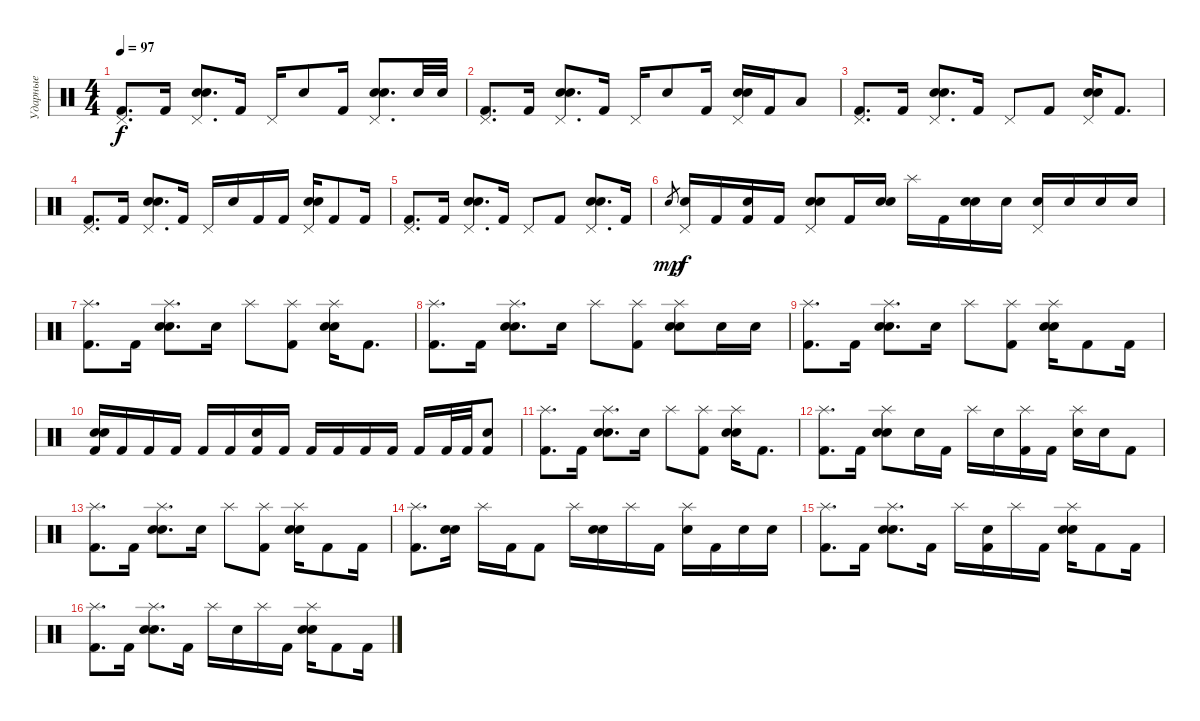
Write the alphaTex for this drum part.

\track ("Ударные" "Ударные") {instrument percussion}
\staff {score}
\articulation defaults
\ts (4 4)
\tempo 97
\clef neutral
\ks c
("Pedal Hi-Hat (hit)" "Kick (hit) 2").8{d dy f} "Kick (hit) 2".16 ("Pedal Hi-Hat (hit)" "Electric Snare (hit)" "Snare (hit) 2").8{d} "Kick (hit) 2".16 "Pedal Hi-Hat (hit)".16 "Electric Snare (hit)".8 "Kick (hit) 2".16 ("Pedal Hi-Hat (hit)" "Electric Snare (hit)" "Snare (hit) 2").8{d} "Electric Snare (hit)".32 "Electric Snare (hit)".32 |
("Pedal Hi-Hat (hit)" "Kick (hit) 2").8{d} "Kick (hit) 2".16 ("Pedal Hi-Hat (hit)" "Electric Snare (hit)" "Snare (hit) 2").8{d} "Kick (hit) 2".16 "Pedal Hi-Hat (hit)".16 "Electric Snare (hit)".8 "Kick (hit) 2".16 ("Pedal Hi-Hat (hit)" "Electric Snare (hit)" "Snare (hit) 2").16 "Kick (hit) 2".16 "Low Floor Tom (hit)".8 |
("Pedal Hi-Hat (hit)" "Kick (hit) 2").8{d} "Kick (hit) 2".16 ("Pedal Hi-Hat (hit)" "Electric Snare (hit)" "Snare (hit) 2").8{d} "Kick (hit) 2".16 "Pedal Hi-Hat (hit)".8 "Kick (hit) 2".8 ("Pedal Hi-Hat (hit)" "Electric Snare (hit)" "Snare (hit) 2").16 "Kick (hit) 2".8{d} |
("Pedal Hi-Hat (hit)" "Kick (hit) 2").8{d} "Kick (hit) 2".16 ("Pedal Hi-Hat (hit)" "Electric Snare (hit)" "Snare (hit) 2").8{d} "Kick (hit) 2".16 "Pedal Hi-Hat (hit)".16 "Electric Snare (hit)".16 "Kick (hit) 2".16 "Kick (hit) 2".16 ("Pedal Hi-Hat (hit)" "Electric Snare (hit)" "Snare (hit) 2").16 "Kick (hit) 2".8 "Kick (hit) 2".16 |
("Pedal Hi-Hat (hit)" "Kick (hit) 2").8{d} "Kick (hit) 2".16 ("Pedal Hi-Hat (hit)" "Electric Snare (hit)" "Snare (hit) 2").8{d} "Kick (hit) 2".16 "Pedal Hi-Hat (hit)".8 "Kick (hit) 2".8 ("Pedal Hi-Hat (hit)" "Electric Snare (hit)" "Snare (hit) 2").8{d} "Kick (hit) 2".16 |
"Electric Snare (hit)".8{gr dy mp} ("Pedal Hi-Hat (hit)" "Electric Snare (hit)").16{dy f} "Kick (hit) 2".16 ("Electric Snare (hit)" "Kick (hit) 2").16 "Kick (hit) 2".16 ("Pedal Hi-Hat (hit)" "Electric Snare (hit)" "Snare (hit) 2").8 "Kick (hit) 2".16 ("Electric Snare (hit)" "Snare (hit) 2").16 "Splash (hit)".16 "Kick (hit) 2".16 ("Electric Snare (hit)" "Snare (hit) 2").16 "Electric Snare (hit)".16 ("Pedal Hi-Hat (hit)" "Electric Snare (hit)").16 "Electric Snare (hit)".16 "Electric Snare (hit)".16 "Electric Snare (hit)".16 |
("Splash (hit)" "Kick (hit) 2").8{d} "Kick (hit) 2".16 ("Splash (hit)" "Electric Snare (hit)" "Snare (hit) 2").8{d} "Electric Snare (hit)".16 "Splash (hit)".8 ("Splash (hit)" "Kick (hit) 2").8 ("Splash (hit)" "Electric Snare (hit)" "Snare (hit) 2").16 "Kick (hit) 2".8{d} |
("Splash (hit)" "Kick (hit) 2").8{d} "Kick (hit) 2".16 ("Splash (hit)" "Electric Snare (hit)" "Snare (hit) 2").8{d} "Electric Snare (hit)".16 "Splash (hit)".8 ("Splash (hit)" "Kick (hit) 2").8 ("Splash (hit)" "Electric Snare (hit)" "Snare (hit) 2").8 "Electric Snare (hit)".16 "Electric Snare (hit)".16 |
("Splash (hit)" "Kick (hit) 2").8{d} "Kick (hit) 2".16 ("Splash (hit)" "Electric Snare (hit)" "Snare (hit) 2").8{d} "Electric Snare (hit)".16 "Splash (hit)".8 ("Splash (hit)" "Kick (hit) 2").8 ("Splash (hit)" "Electric Snare (hit)" "Snare (hit) 2").16 "Kick (hit) 2".8 "Kick (hit) 2".16 |
("Electric Snare (hit)" "Snare (hit) 2" "Kick (hit) 2").16 "Kick (hit) 2".16 "Kick (hit) 2".16 "Kick (hit) 2".16 "Kick (hit) 2".16 "Kick (hit) 2".16 ("Electric Snare (hit)" "Kick (hit) 2").16 "Kick (hit) 2".16 "Kick (hit) 2".16 "Kick (hit) 2".16 "Kick (hit) 2".16 "Kick (hit) 2".16 "Kick (hit) 2".16 "Kick (hit) 2".32 "Kick (hit) 2".32 ("Electric Snare (hit)" "Kick (hit) 2").8 |
("Splash (hit)" "Kick (hit) 2").8{d} "Kick (hit) 2".16 ("Splash (hit)" "Electric Snare (hit)" "Snare (hit) 2").8{d} "Electric Snare (hit)".16 "Splash (hit)".8 ("Splash (hit)" "Kick (hit) 2").8 ("Splash (hit)" "Electric Snare (hit)" "Snare (hit) 2").16 "Kick (hit) 2".8{d} |
("Splash (hit)" "Kick (hit) 2").8{d} "Kick (hit) 2".16 ("Splash (hit)" "Electric Snare (hit)" "Snare (hit) 2").8 "Electric Snare (hit)".16 "Kick (hit) 2".16 "Splash (hit)".16 "Electric Snare (hit)".16 ("Splash (hit)" "Kick (hit) 2").16 "Kick (hit) 2".16 ("Splash (hit)" "Electric Snare (hit)").16 "Electric Snare (hit)".16 "Kick (hit) 2".8 |
("Splash (hit)" "Kick (hit) 2").8{d} "Kick (hit) 2".16 ("Splash (hit)" "Electric Snare (hit)" "Snare (hit) 2").8{d} "Electric Snare (hit)".16 "Splash (hit)".8 ("Splash (hit)" "Kick (hit) 2").8 ("Splash (hit)" "Electric Snare (hit)" "Snare (hit) 2").16 "Kick (hit) 2".8 "Kick (hit) 2".16 |
("Splash (hit)" "Kick (hit) 2").8{d} ("Electric Snare (hit)" "Snare (hit) 2").16 "Splash (hit)".16 "Kick (hit) 2".16 "Kick (hit) 2".8 "Splash (hit)".16 ("Electric Snare (hit)" "Snare (hit) 2").16 "Splash (hit)".16 "Kick (hit) 2".16 ("Splash (hit)" "Electric Snare (hit)").16 "Kick (hit) 2".16 "Electric Snare (hit)".16 "Electric Snare (hit)".16 |
("Splash (hit)" "Kick (hit) 2").8{d} "Kick (hit) 2".16 ("Splash (hit)" "Electric Snare (hit)" "Snare (hit) 2").8{d} "Kick (hit) 2".16 "Splash (hit)".16 ("Electric Snare (hit)" "Kick (hit) 2").16 "Splash (hit)".16 "Kick (hit) 2".16 ("Splash (hit)" "Electric Snare (hit)" "Snare (hit) 2").16 "Kick (hit) 2".8 "Kick (hit) 2".16 |
("Splash (hit)" "Kick (hit) 2").8{d} "Kick (hit) 2".16 ("Splash (hit)" "Electric Snare (hit)" "Snare (hit) 2").8{d} "Kick (hit) 2".16 "Splash (hit)".16 "Electric Snare (hit)".16 "Splash (hit)".16 "Kick (hit) 2".16 ("Splash (hit)" "Electric Snare (hit)" "Snare (hit) 2").16 "Kick (hit) 2".8 "Kick (hit) 2".16
